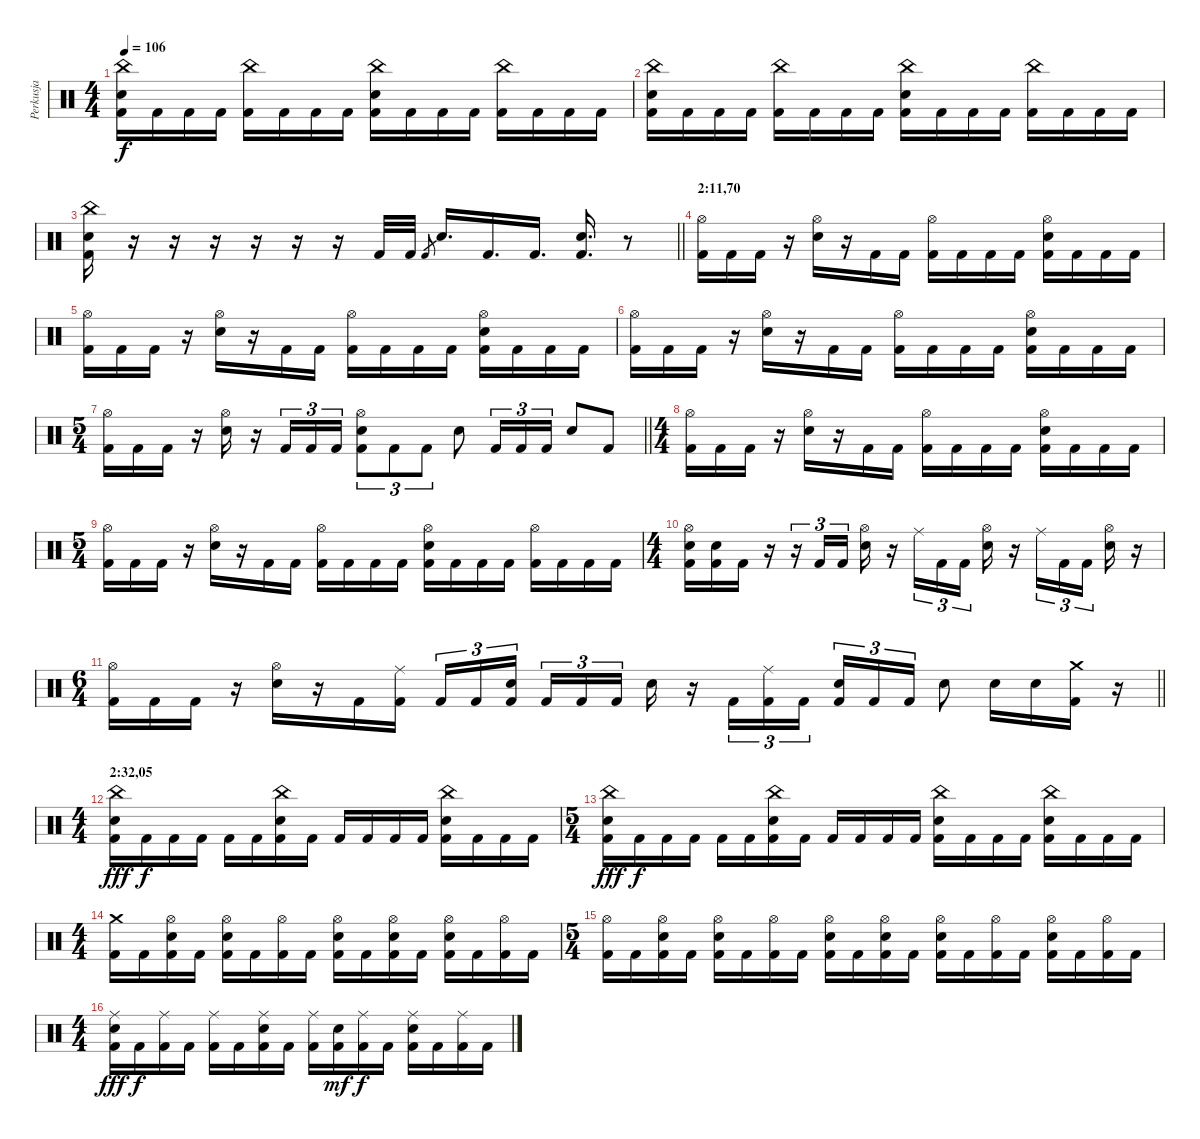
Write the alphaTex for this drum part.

\track ("Perkusja" "Perkusja") {instrument percussion}
\staff {score}
\articulation defaults
\ts (4 4)
\tempo 106
\clef neutral
\ks c
("China (hit)" "Electric Snare (hit)" "Kick (hit) 2").16{dy f} "Kick (hit) 2".16 "Kick (hit) 2".16 "Kick (hit) 2".16 ("China (hit)" "Kick (hit) 2").16 "Kick (hit) 2".16 "Kick (hit) 2".16 "Kick (hit) 2".16 ("China (hit)" "Electric Snare (hit)" "Kick (hit) 2").16 "Kick (hit) 2".16 "Kick (hit) 2".16 "Kick (hit) 2".16 ("China (hit)" "Kick (hit) 2").16 "Kick (hit) 2".16 "Kick (hit) 2".16 "Kick (hit) 2".16 |
("China (hit)" "Electric Snare (hit)" "Kick (hit) 2").16 "Kick (hit) 2".16 "Kick (hit) 2".16 "Kick (hit) 2".16 ("China (hit)" "Kick (hit) 2").16 "Kick (hit) 2".16 "Kick (hit) 2".16 "Kick (hit) 2".16 ("China (hit)" "Electric Snare (hit)" "Kick (hit) 2").16 "Kick (hit) 2".16 "Kick (hit) 2".16 "Kick (hit) 2".16 ("China (hit)" "Kick (hit) 2").16 "Kick (hit) 2".16 "Kick (hit) 2".16 "Kick (hit) 2".16 |
\barLineRight lightlight
("China (hit)" "Electric Snare (hit)" "Kick (hit) 2").16 r.16 r.16 r.16 r.16 r.16 r.16 "Kick (hit) 2".32 "Kick (hit) 2".32 "Kick (hit) 2".8{gr} "Electric Snare (hit)".16{d} "Kick (hit) 2".16{d} "Kick (hit) 2".16{d} ("Electric Snare (hit)" "Kick (hit) 2").16{d} r.8 |
\section ("" "2:11,70")
("Hi-Hat (open)" "Kick (hit) 2").16 "Kick (hit) 2".16 "Kick (hit) 2".16 r.16 ("Hi-Hat (open)" "Electric Snare (hit)").16 r.16 "Kick (hit) 2".16 "Kick (hit) 2".16 ("Hi-Hat (open)" "Kick (hit) 2").16 "Kick (hit) 2".16 "Kick (hit) 2".16 "Kick (hit) 2".16 ("Hi-Hat (open)" "Electric Snare (hit)" "Kick (hit) 2").16 "Kick (hit) 2".16 "Kick (hit) 2".16 "Kick (hit) 2".16 |
("Hi-Hat (open)" "Kick (hit) 2").16 "Kick (hit) 2".16 "Kick (hit) 2".16 r.16 ("Hi-Hat (open)" "Electric Snare (hit)").16 r.16 "Kick (hit) 2".16 "Kick (hit) 2".16 ("Hi-Hat (open)" "Kick (hit) 2").16 "Kick (hit) 2".16 "Kick (hit) 2".16 "Kick (hit) 2".16 ("Hi-Hat (open)" "Electric Snare (hit)" "Kick (hit) 2").16 "Kick (hit) 2".16 "Kick (hit) 2".16 "Kick (hit) 2".16 |
("Hi-Hat (open)" "Kick (hit) 2").16 "Kick (hit) 2".16 "Kick (hit) 2".16 r.16 ("Hi-Hat (open)" "Electric Snare (hit)").16 r.16 "Kick (hit) 2".16 "Kick (hit) 2".16 ("Hi-Hat (open)" "Kick (hit) 2").16 "Kick (hit) 2".16 "Kick (hit) 2".16 "Kick (hit) 2".16 ("Hi-Hat (open)" "Electric Snare (hit)" "Kick (hit) 2").16 "Kick (hit) 2".16 "Kick (hit) 2".16 "Kick (hit) 2".16 |
\ts (5 4)
\barLineRight lightlight
("Hi-Hat (open)" "Kick (hit) 2").16 "Kick (hit) 2".16 "Kick (hit) 2".16 r.16 ("Hi-Hat (open)" "Electric Snare (hit)").16 r.16 "Kick (hit) 2".16{tu (3 2)} "Kick (hit) 2".16{tu (3 2)} "Kick (hit) 2".16{tu (3 2)} ("Hi-Hat (open)" "Electric Snare (hit)" "Kick (hit) 2").8{tu (3 2)} "Kick (hit) 2".8{tu (3 2)} "Kick (hit) 2".8{tu (3 2)} "Electric Snare (hit)".8 "Kick (hit) 2".16{tu (3 2)} "Kick (hit) 2".16{tu (3 2)} "Kick (hit) 2".16{tu (3 2)} "Electric Snare (hit)".8 "Kick (hit) 2".8 |
\ts (4 4)
("Hi-Hat (open)" "Kick (hit) 2").16 "Kick (hit) 2".16 "Kick (hit) 2".16 r.16 ("Hi-Hat (open)" "Electric Snare (hit)").16 r.16 "Kick (hit) 2".16 "Kick (hit) 2".16 ("Hi-Hat (open)" "Kick (hit) 2").16 "Kick (hit) 2".16 "Kick (hit) 2".16 "Kick (hit) 2".16 ("Hi-Hat (open)" "Electric Snare (hit)" "Kick (hit) 2").16 "Kick (hit) 2".16 "Kick (hit) 2".16 "Kick (hit) 2".16 |
\ts (5 4)
("Hi-Hat (open)" "Kick (hit) 2").16 "Kick (hit) 2".16 "Kick (hit) 2".16 r.16 ("Hi-Hat (open)" "Electric Snare (hit)").16 r.16 "Kick (hit) 2".16 "Kick (hit) 2".16 ("Hi-Hat (open)" "Kick (hit) 2").16 "Kick (hit) 2".16 "Kick (hit) 2".16 "Kick (hit) 2".16 ("Hi-Hat (open)" "Electric Snare (hit)" "Kick (hit) 2").16 "Kick (hit) 2".16 "Kick (hit) 2".16 "Kick (hit) 2".16 ("Hi-Hat (open)" "Kick (hit) 2").16 "Kick (hit) 2".16 "Kick (hit) 2".16 "Kick (hit) 2".16 |
\ts (4 4)
("Hi-Hat (open)" "Electric Snare (hit)" "Kick (hit) 2").16 ("Electric Snare (hit)" "Kick (hit) 2").16 "Kick (hit) 2".16 r.16 r.16{tu (3 2)} "Kick (hit) 2".16{tu (3 2)} "Kick (hit) 2".16{tu (3 2) beam splitsecondary} ("Hi-Hat (open)" "Electric Snare (hit)").16 r.16 "Ride (middle)".16{tu (3 2)} "Kick (hit) 2".16{tu (3 2)} "Kick (hit) 2".16{tu (3 2) beam splitsecondary} ("Hi-Hat (open)" "Electric Snare (hit)").16 r.16 "Ride (middle)".16{tu (3 2)} "Kick (hit) 2".16{tu (3 2)} "Kick (hit) 2".16{tu (3 2) beam splitsecondary} ("Hi-Hat (open)" "Electric Snare (hit)").16 r.16 |
\ts (6 4)
\barLineRight lightlight
("Hi-Hat (open)" "Kick (hit) 2").16 "Kick (hit) 2".16 "Kick (hit) 2".16 r.16 ("Hi-Hat (open)" "Electric Snare (hit)").16 r.16 "Kick (hit) 2".16 ("Ride (middle)" "Kick (hit) 2").16{beam splitsecondary} "Kick (hit) 2".16{tu (3 2)} "Kick (hit) 2".16{tu (3 2)} ("Electric Snare (hit)" "Kick (hit) 2").16{tu (3 2) beam splitsecondary} "Kick (hit) 2".16{tu (3 2)} "Kick (hit) 2".16{tu (3 2)} "Kick (hit) 2".16{tu (3 2)} "Electric Snare (hit)".16 r.16 "Kick (hit) 2".16{tu (3 2)} ("Ride (middle)" "Kick (hit) 2").16{tu (3 2)} "Kick (hit) 2".16{tu (3 2) beam splitsecondary} ("Electric Snare (hit)" "Kick (hit) 2").16{tu (3 2)} "Kick (hit) 2".16{tu (3 2)} "Kick (hit) 2".16{tu (3 2)} "Electric Snare (hit)".8 "Electric Snare (hit)".16 "Electric Snare (hit)".16 ("Crash medium (hit)" "Kick (hit) 2").16 r.16 |
\ts (4 4)
\section ("" "2:32,05")
("China (hit)" "Electric Snare (hit)" "Kick (hit) 2").16{dy fff} "Kick (hit) 2".16{dy f} "Kick (hit) 2".16 "Kick (hit) 2".16 "Kick (hit) 2".16 "Kick (hit) 2".16 ("China (hit)" "Electric Snare (hit)" "Kick (hit) 2").16 "Kick (hit) 2".16 "Kick (hit) 2".16 "Kick (hit) 2".16 "Kick (hit) 2".16 "Kick (hit) 2".16 ("China (hit)" "Electric Snare (hit)" "Kick (hit) 2").16 "Kick (hit) 2".16 "Kick (hit) 2".16 "Kick (hit) 2".16 |
\ts (5 4)
("China (hit)" "Electric Snare (hit)" "Kick (hit) 2").16{dy fff} "Kick (hit) 2".16{dy f} "Kick (hit) 2".16 "Kick (hit) 2".16 "Kick (hit) 2".16 "Kick (hit) 2".16 ("China (hit)" "Electric Snare (hit)" "Kick (hit) 2").16 "Kick (hit) 2".16 "Kick (hit) 2".16 "Kick (hit) 2".16 "Kick (hit) 2".16 "Kick (hit) 2".16 ("China (hit)" "Electric Snare (hit)" "Kick (hit) 2").16 "Kick (hit) 2".16 "Kick (hit) 2".16 "Kick (hit) 2".16 ("China (hit)" "Electric Snare (hit)" "Kick (hit) 2").16 "Kick (hit) 2".16 "Kick (hit) 2".16 "Kick (hit) 2".16 |
\ts (4 4)
("Crash medium (hit)" "Kick (hit) 2").16 "Kick (hit) 2".16 ("Hi-Hat (open)" "Electric Snare (hit)" "Kick (hit) 2").16 "Kick (hit) 2".16 ("Hi-Hat (open)" "Electric Snare (hit)" "Kick (hit) 2").16 "Kick (hit) 2".16 ("Hi-Hat (open)" "Kick (hit) 2").16 "Kick (hit) 2".16 ("Hi-Hat (open)" "Electric Snare (hit)" "Kick (hit) 2").16 "Kick (hit) 2".16 ("Hi-Hat (open)" "Electric Snare (hit)" "Kick (hit) 2").16 "Kick (hit) 2".16 ("Hi-Hat (open)" "Electric Snare (hit)" "Kick (hit) 2").16 "Kick (hit) 2".16 ("Hi-Hat (open)" "Kick (hit) 2").16 "Kick (hit) 2".16 |
\ts (5 4)
("Hi-Hat (open)" "Kick (hit) 2").16 "Kick (hit) 2".16 ("Hi-Hat (open)" "Electric Snare (hit)" "Kick (hit) 2").16 "Kick (hit) 2".16 ("Hi-Hat (open)" "Electric Snare (hit)" "Kick (hit) 2").16 "Kick (hit) 2".16 ("Hi-Hat (open)" "Kick (hit) 2").16 "Kick (hit) 2".16 ("Hi-Hat (open)" "Electric Snare (hit)" "Kick (hit) 2").16 "Kick (hit) 2".16 ("Hi-Hat (open)" "Electric Snare (hit)" "Kick (hit) 2").16 "Kick (hit) 2".16 ("Hi-Hat (open)" "Electric Snare (hit)" "Kick (hit) 2").16 "Kick (hit) 2".16 ("Hi-Hat (open)" "Kick (hit) 2").16 "Kick (hit) 2".16 ("Hi-Hat (open)" "Electric Snare (hit)" "Kick (hit) 2").16 "Kick (hit) 2".16 ("Hi-Hat (open)" "Kick (hit) 2").16 "Kick (hit) 2".16 |
\ts (4 4)
("Ride (middle)" "Electric Snare (hit)" "Kick (hit) 2").16{dy fff} "Kick (hit) 2".16{dy f} ("Ride (middle)" "Kick (hit) 2").16 "Kick (hit) 2".16 ("Ride (middle)" "Kick (hit) 2").16 "Kick (hit) 2".16 ("Ride (middle)" "Electric Snare (hit)" "Kick (hit) 2").16 "Kick (hit) 2".16 ("Ride (middle)" "Kick (hit) 2").16 ("Electric Snare (hit)" "Kick (hit) 2").16{dy mf} ("Ride (middle)" "Kick (hit) 2").16{dy f} "Kick (hit) 2".16 ("Ride (middle)" "Electric Snare (hit)" "Kick (hit) 2").16 "Kick (hit) 2".16 ("Ride (middle)" "Kick (hit) 2").16 "Kick (hit) 2".16
